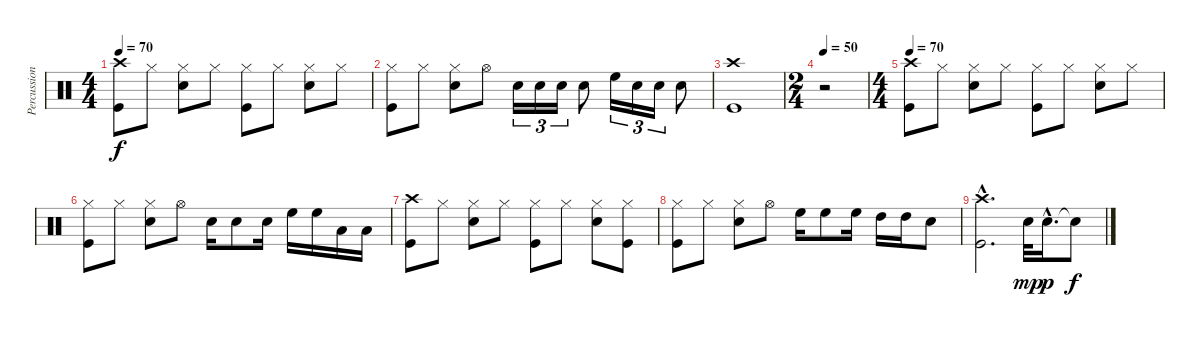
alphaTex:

\track ("Percussion" "Percussion") {instrument percussion}
\staff {score}
\articulation defaults
\ts (4 4)
\tempo 70
\clef neutral
\ks c
("Crash high (hit)" "Kick (hit)").8{dy f} "Hi-Hat (closed)".8 ("Hi-Hat (closed)" "Snare (hit) 2").8 "Hi-Hat (closed)".8 ("Hi-Hat (closed)" "Kick (hit)").8 "Hi-Hat (closed)".8 ("Hi-Hat (closed)" "Snare (hit) 2").8 "Hi-Hat (closed)".8 |
("Hi-Hat (closed)" "Kick (hit)").8 "Hi-Hat (closed)".8 ("Hi-Hat (closed)" "Snare (hit) 2").8 "Hi-Hat (open)".8 "Snare (hit) 2".16{tu (3 2)} "Snare (hit) 2".16{tu (3 2)} "Snare (hit) 2".16{tu (3 2)} "Snare (hit) 2".8 "High Floor Tom (hit)".16{tu (3 2)} "Snare (hit) 2".16{tu (3 2)} "Snare (hit) 2".16{tu (3 2)} "Snare (hit) 2".8 |
("Crash high (hit)" "Kick (hit)").1 |
\ts (2 4)
\tempo 50
r.2 |
\ts (4 4)
\tempo 70
("Crash high (hit)" "Kick (hit)").8 "Hi-Hat (closed)".8 ("Hi-Hat (closed)" "Snare (hit) 2").8 "Hi-Hat (closed)".8 ("Hi-Hat (closed)" "Kick (hit)").8 "Hi-Hat (closed)".8 ("Hi-Hat (closed)" "Snare (hit) 2").8 "Hi-Hat (closed)".8 |
("Hi-Hat (closed)" "Kick (hit)").8 "Hi-Hat (closed)".8 ("Hi-Hat (closed)" "Snare (hit) 2").8 "Hi-Hat (open)".8 "Snare (hit) 2".16 "Snare (hit) 2".8 "Snare (hit) 2".16 "High Floor Tom (hit)".16 "High Floor Tom (hit)".16 "Low Floor Tom (hit)".16 "Low Floor Tom (hit)".16 |
("Crash high (hit)" "Kick (hit)").8 "Hi-Hat (closed)".8 ("Hi-Hat (closed)" "Snare (hit) 2").8 "Hi-Hat (closed)".8 ("Hi-Hat (closed)" "Kick (hit)").8 "Hi-Hat (closed)".8 ("Hi-Hat (closed)" "Snare (hit) 2").8 ("Hi-Hat (closed)" "Kick (hit)").8 |
("Hi-Hat (closed)" "Kick (hit)").8 "Hi-Hat (closed)".8 ("Hi-Hat (closed)" "Snare (hit) 2").8 "Hi-Hat (open)".8 "High Floor Tom (hit)".16 "High Floor Tom (hit)".8 "High Floor Tom (hit)".16 "High Tom (hit)".16 "High Tom (hit)".16 "Snare (hit) 2".8 |
("Crash high (hit)"{hac} "Kick (hit)"{hac}).2{d} "Snare (hit) 2".32{dy mp volume 0} "Snare (hit) 2"{hac}.16{d dy p} "Snare (hit)"{t}.8{dy f}
